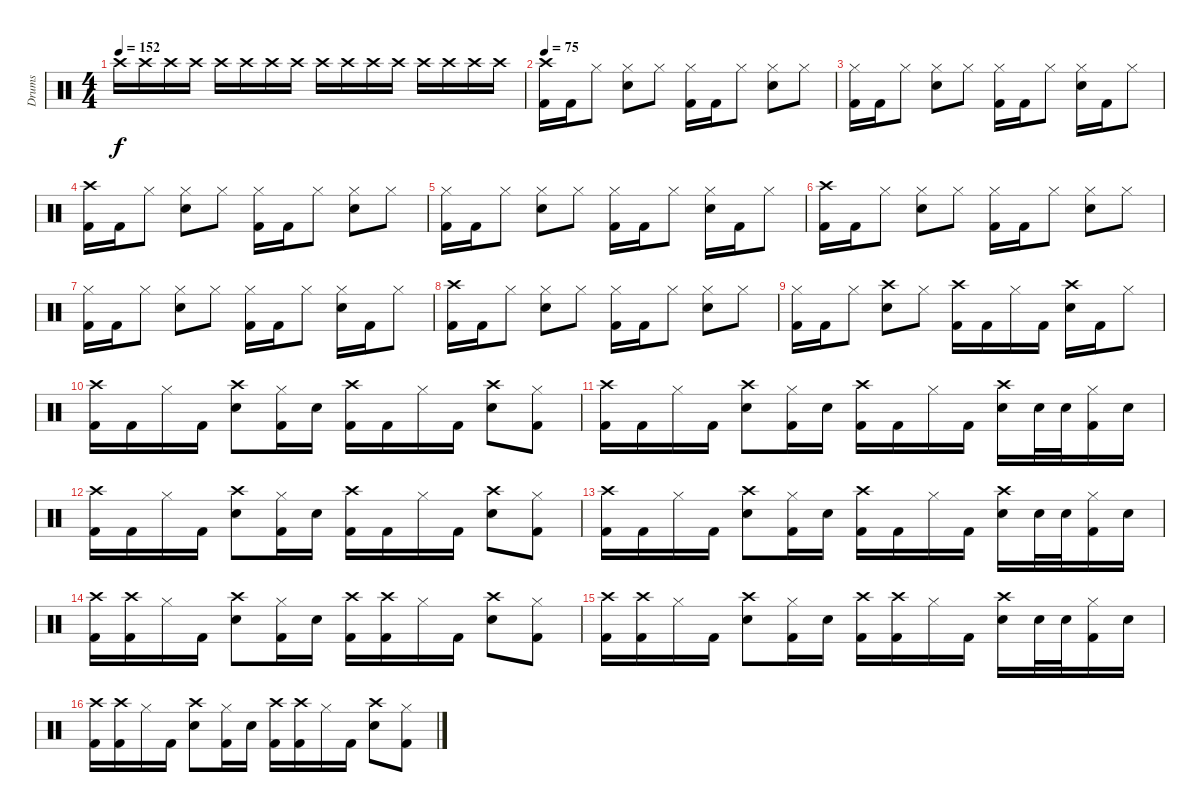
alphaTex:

\track ("Drums" "Drums") {instrument percussion}
\staff {score}
\articulation defaults
\ts (4 4)
\tempo 152
\clef neutral
\ks c "Crash high (hit)".16{dy f} "Crash high (hit)".16 "Crash high (hit)".16 "Crash high (hit)".16 "Crash high (hit)".16 "Crash high (hit)".16 "Crash high (hit)".16 "Crash high (hit)".16 "Crash high (hit)".16 "Crash high (hit)".16 "Crash high (hit)".16 "Crash high (hit)".16 "Crash high (hit)".16 "Crash high (hit)".16 "Crash high (hit)".16 "Crash high (hit)".16
|
\tempo 75
("Crash high (hit)" "Kick (hit) 2").16 "Kick (hit) 2".16 "Hi-Hat (closed)".8 ("Hi-Hat (closed)" "Electric Snare (hit)").8 "Hi-Hat (closed)".8 ("Hi-Hat (closed)" "Kick (hit) 2").16 "Kick (hit) 2".16 "Hi-Hat (closed)".8 ("Hi-Hat (closed)" "Electric Snare (hit)").8 "Hi-Hat (closed)".8 |
("Hi-Hat (closed)" "Kick (hit) 2").16 "Kick (hit) 2".16 "Hi-Hat (closed)".8 ("Hi-Hat (closed)" "Electric Snare (hit)").8 "Hi-Hat (closed)".8 ("Hi-Hat (closed)" "Kick (hit) 2").16 "Kick (hit) 2".16 "Hi-Hat (closed)".8 ("Hi-Hat (closed)" "Electric Snare (hit)").16 "Kick (hit) 2".16 "Hi-Hat (closed)".8 |
("Crash high (hit)" "Kick (hit) 2").16 "Kick (hit) 2".16 "Hi-Hat (closed)".8 ("Hi-Hat (closed)" "Electric Snare (hit)").8 "Hi-Hat (closed)".8 ("Hi-Hat (closed)" "Kick (hit) 2").16 "Kick (hit) 2".16 "Hi-Hat (closed)".8 ("Hi-Hat (closed)" "Electric Snare (hit)").8 "Hi-Hat (closed)".8 |
("Hi-Hat (closed)" "Kick (hit) 2").16 "Kick (hit) 2".16 "Hi-Hat (closed)".8 ("Hi-Hat (closed)" "Electric Snare (hit)").8 "Hi-Hat (closed)".8 ("Hi-Hat (closed)" "Kick (hit) 2").16 "Kick (hit) 2".16 "Hi-Hat (closed)".8 ("Hi-Hat (closed)" "Electric Snare (hit)").16 "Kick (hit) 2".16 "Hi-Hat (closed)".8 |
("Crash high (hit)" "Kick (hit) 2").16 "Kick (hit) 2".16 "Hi-Hat (closed)".8 ("Hi-Hat (closed)" "Electric Snare (hit)").8 "Hi-Hat (closed)".8 ("Hi-Hat (closed)" "Kick (hit) 2").16 "Kick (hit) 2".16 "Hi-Hat (closed)".8 ("Hi-Hat (closed)" "Electric Snare (hit)").8 "Hi-Hat (closed)".8 |
("Hi-Hat (closed)" "Kick (hit) 2").16 "Kick (hit) 2".16 "Hi-Hat (closed)".8 ("Hi-Hat (closed)" "Electric Snare (hit)").8 "Hi-Hat (closed)".8 ("Hi-Hat (closed)" "Kick (hit) 2").16 "Kick (hit) 2".16 "Hi-Hat (closed)".8 ("Hi-Hat (closed)" "Electric Snare (hit)").16 "Kick (hit) 2".16 "Hi-Hat (closed)".8 |
("Crash high (hit)" "Kick (hit) 2").16 "Kick (hit) 2".16 "Hi-Hat (closed)".8 ("Hi-Hat (closed)" "Electric Snare (hit)").8 "Hi-Hat (closed)".8 ("Hi-Hat (closed)" "Kick (hit) 2").16 "Kick (hit) 2".16 "Hi-Hat (closed)".8 ("Hi-Hat (closed)" "Electric Snare (hit)").8 "Hi-Hat (closed)".8 |
("Hi-Hat (closed)" "Kick (hit) 2").16 "Kick (hit) 2".16 "Hi-Hat (closed)".8 ("Crash high (hit)" "Electric Snare (hit)").8 "Hi-Hat (closed)".8 ("Crash high (hit)" "Kick (hit) 2").16 "Kick (hit) 2".16 "Hi-Hat (closed)".16 "Kick (hit) 2".16 ("Crash high (hit)" "Electric Snare (hit)").16 "Kick (hit) 2".16 "Hi-Hat (closed)".8 |
("Crash high (hit)" "Kick (hit) 2").16 "Kick (hit) 2".16 "Hi-Hat (closed)".16 "Kick (hit) 2".16 ("Crash high (hit)" "Electric Snare (hit)").8 ("Hi-Hat (closed)" "Kick (hit) 2").16 "Electric Snare (hit)".16 ("Crash high (hit)" "Kick (hit) 2").16 "Kick (hit) 2".16 "Hi-Hat (closed)".16 "Kick (hit) 2".16 ("Crash high (hit)" "Electric Snare (hit)").8 ("Hi-Hat (closed)" "Kick (hit) 2").8 |
("Crash high (hit)" "Kick (hit) 2").16 "Kick (hit) 2".16 "Hi-Hat (closed)".16 "Kick (hit) 2".16 ("Crash high (hit)" "Electric Snare (hit)").8 ("Hi-Hat (closed)" "Kick (hit) 2").16 "Electric Snare (hit)".16 ("Crash high (hit)" "Kick (hit) 2").16 "Kick (hit) 2".16 "Hi-Hat (closed)".16 "Kick (hit) 2".16 ("Crash high (hit)" "Electric Snare (hit)").16 "Electric Snare (hit)".32 "Electric Snare (hit)".32 ("Hi-Hat (closed)" "Kick (hit) 2").16 "Electric Snare (hit)".16 |
("Crash high (hit)" "Kick (hit) 2").16 "Kick (hit) 2".16 "Hi-Hat (closed)".16 "Kick (hit) 2".16 ("Crash high (hit)" "Electric Snare (hit)").8 ("Hi-Hat (closed)" "Kick (hit) 2").16 "Electric Snare (hit)".16 ("Crash high (hit)" "Kick (hit) 2").16 "Kick (hit) 2".16 "Hi-Hat (closed)".16 "Kick (hit) 2".16 ("Crash high (hit)" "Electric Snare (hit)").8 ("Hi-Hat (closed)" "Kick (hit) 2").8 |
("Crash high (hit)" "Kick (hit) 2").16 "Kick (hit) 2".16 "Hi-Hat (closed)".16 "Kick (hit) 2".16 ("Crash high (hit)" "Electric Snare (hit)").8 ("Hi-Hat (closed)" "Kick (hit) 2").16 "Electric Snare (hit)".16 ("Crash high (hit)" "Kick (hit) 2").16 "Kick (hit) 2".16 "Hi-Hat (closed)".16 "Kick (hit) 2".16 ("Crash high (hit)" "Electric Snare (hit)").16 "Electric Snare (hit)".32 "Electric Snare (hit)".32 ("Hi-Hat (closed)" "Kick (hit) 2").16 "Electric Snare (hit)".16 |
("Crash high (hit)" "Kick (hit) 2").16 ("Crash high (hit)" "Kick (hit) 2").16 "Hi-Hat (closed)".16 "Kick (hit) 2".16 ("Crash high (hit)" "Electric Snare (hit)").8 ("Hi-Hat (closed)" "Kick (hit) 2").16 "Electric Snare (hit)".16 ("Crash high (hit)" "Kick (hit) 2").16 ("Crash high (hit)" "Kick (hit) 2").16 "Hi-Hat (closed)".16 "Kick (hit) 2".16 ("Crash high (hit)" "Electric Snare (hit)").8 ("Hi-Hat (closed)" "Kick (hit) 2").8 |
("Crash high (hit)" "Kick (hit) 2").16 ("Crash high (hit)" "Kick (hit) 2").16 "Hi-Hat (closed)".16 "Kick (hit) 2".16 ("Crash high (hit)" "Electric Snare (hit)").8 ("Hi-Hat (closed)" "Kick (hit) 2").16 "Electric Snare (hit)".16 ("Crash high (hit)" "Kick (hit) 2").16 ("Crash high (hit)" "Kick (hit) 2").16 "Hi-Hat (closed)".16 "Kick (hit) 2".16 ("Crash high (hit)" "Electric Snare (hit)").16 "Electric Snare (hit)".32 "Electric Snare (hit)".32 ("Hi-Hat (closed)" "Kick (hit) 2").16 "Electric Snare (hit)".16 |
("Crash high (hit)" "Kick (hit) 2").16 ("Crash high (hit)" "Kick (hit) 2").16 "Hi-Hat (closed)".16 "Kick (hit) 2".16 ("Crash high (hit)" "Electric Snare (hit)").8 ("Hi-Hat (closed)" "Kick (hit) 2").16 "Electric Snare (hit)".16 ("Crash high (hit)" "Kick (hit) 2").16 ("Crash high (hit)" "Kick (hit) 2").16 "Hi-Hat (closed)".16 "Kick (hit) 2".16 ("Crash high (hit)" "Electric Snare (hit)").8 ("Hi-Hat (closed)" "Kick (hit) 2").8
